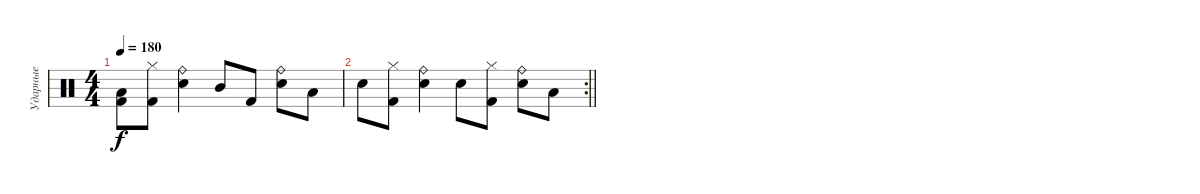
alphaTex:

\track ("Ударные" "Ударные") {instrument percussion}
\staff {score}
\articulation defaults
\ts (4 4)
\tempo 180
\clef neutral
\ks c
("Kick (hit) 2" "Low Floor Tom (hit)").8{dy f} ("Hi-Hat (closed)" "Kick (hit) 2").8 ("Ride (bell)" "Snare (hit) 2").4 "Mid Tom (hit)".8 "Kick (hit) 2".8 ("Ride (bell)" "Snare (hit) 2").8 "Low Tom (hit)".8 |
\rc 2
\barLineRight lightlight "Snare (hit) 2".8
("Hi-Hat (closed)" "Kick (hit) 2").8 ("Ride (bell)" "Snare (hit) 2").4 "Snare (hit) 2".8 ("Hi-Hat (closed)" "Kick (hit) 2").8 ("Ride (bell)" "Snare (hit) 2").8 "Low Tom (hit)".8
